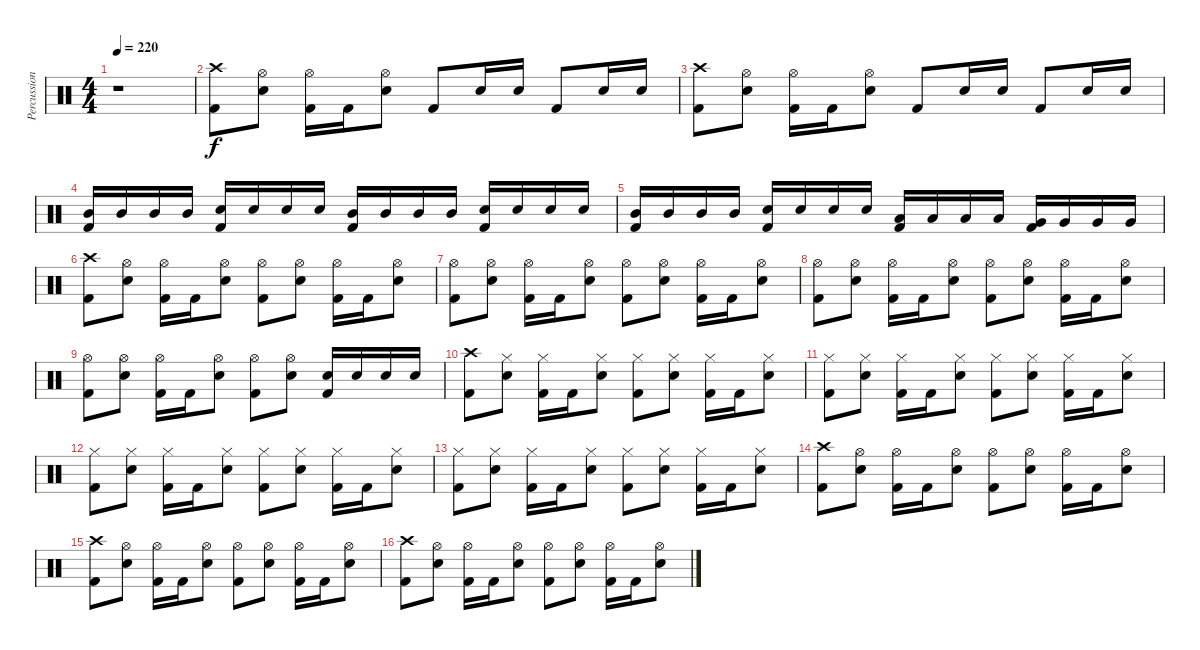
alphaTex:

\track ("Percussions" "Percussion") {instrument percussion}
\staff {score}
\articulation defaults
\ts (4 4)
\tempo 220
\clef neutral
\ks c
r.1{dy f} |
("Crash high (hit)" "Kick (hit) 2").8 ("Hi-Hat (open)" "Snare (hit) 2").8 ("Hi-Hat (open)" "Kick (hit) 2").16 "Kick (hit) 2".16 ("Hi-Hat (open)" "Snare (hit) 2").8 "Kick (hit) 2".8 "Snare (hit) 2".16 "Snare (hit) 2".16 "Kick (hit) 2".8 "Snare (hit) 2".16 "Snare (hit) 2".16 |
("Crash high (hit)" "Kick (hit) 2").8 ("Hi-Hat (open)" "Snare (hit) 2").8 ("Hi-Hat (open)" "Kick (hit) 2").16 "Kick (hit) 2".16 ("Hi-Hat (open)" "Snare (hit) 2").8 "Kick (hit) 2".8 "Snare (hit) 2".16 "Snare (hit) 2".16 "Kick (hit) 2".8 "Snare (hit) 2".16 "Snare (hit) 2".16 |
("Mid Tom (hit)" "Kick (hit) 2").16 "Mid Tom (hit)".16 "Mid Tom (hit)".16 "Mid Tom (hit)".16 ("Snare (hit) 2" "Kick (hit) 2").16 "Snare (hit) 2".16 "Snare (hit) 2".16 "Snare (hit) 2".16 ("Mid Tom (hit)" "Kick (hit) 2").16 "Mid Tom (hit)".16 "Mid Tom (hit)".16 "Mid Tom (hit)".16 ("Snare (hit) 2" "Kick (hit) 2").16 "Snare (hit) 2".16 "Snare (hit) 2".16 "Snare (hit) 2".16 |
("Mid Tom (hit)" "Kick (hit) 2").16 "Mid Tom (hit)".16 "Mid Tom (hit)".16 "Mid Tom (hit)".16 ("Snare (hit) 2" "Kick (hit) 2").16 "Snare (hit) 2".16 "Snare (hit) 2".16 "Snare (hit) 2".16 ("Low Tom (hit)" "Kick (hit) 2").16 "Low Tom (hit)".16 "Low Tom (hit)".16 "Low Tom (hit)".16 ("Very Low Tom (hit)" "Kick (hit) 2").16 "Very Low Tom (hit)".16 "Very Low Tom (hit)".16 "Very Low Tom (hit)".16 |
("Crash high (hit)" "Kick (hit) 2").8 ("Hi-Hat (open)" "Snare (hit) 2").8 ("Hi-Hat (open)" "Kick (hit) 2").16 "Kick (hit) 2".16 ("Hi-Hat (open)" "Snare (hit) 2").8 ("Hi-Hat (open)" "Kick (hit) 2").8 ("Hi-Hat (open)" "Snare (hit) 2").8 ("Hi-Hat (open)" "Kick (hit) 2").16 "Kick (hit) 2".16 ("Hi-Hat (open)" "Snare (hit) 2").8 |
("Hi-Hat (open)" "Kick (hit) 2").8 ("Hi-Hat (open)" "Snare (hit) 2").8 ("Hi-Hat (open)" "Kick (hit) 2").16 "Kick (hit) 2".16 ("Hi-Hat (open)" "Snare (hit) 2").8 ("Hi-Hat (open)" "Kick (hit) 2").8 ("Hi-Hat (open)" "Snare (hit) 2").8 ("Hi-Hat (open)" "Kick (hit) 2").16 "Kick (hit) 2".16 ("Hi-Hat (open)" "Snare (hit) 2").8 |
("Hi-Hat (open)" "Kick (hit) 2").8 ("Hi-Hat (open)" "Snare (hit) 2").8 ("Hi-Hat (open)" "Kick (hit) 2").16 "Kick (hit) 2".16 ("Hi-Hat (open)" "Snare (hit) 2").8 ("Hi-Hat (open)" "Kick (hit) 2").8 ("Hi-Hat (open)" "Snare (hit) 2").8 ("Hi-Hat (open)" "Kick (hit) 2").16 "Kick (hit) 2".16 ("Hi-Hat (open)" "Snare (hit) 2").8 |
("Hi-Hat (open)" "Kick (hit) 2").8 ("Hi-Hat (open)" "Snare (hit) 2").8 ("Hi-Hat (open)" "Kick (hit) 2").16 "Kick (hit) 2".16 ("Hi-Hat (open)" "Snare (hit) 2").8 ("Hi-Hat (open)" "Kick (hit) 2").8 ("Hi-Hat (open)" "Snare (hit) 2").8 ("Snare (hit) 2" "Kick (hit) 2").16 "Snare (hit) 2".16 "Snare (hit) 2".16 "Snare (hit) 2".16 |
("Crash high (hit)" "Kick (hit) 2").8 ("Hi-Hat (closed)" "Snare (hit) 2").8 ("Hi-Hat (closed)" "Kick (hit) 2").16 "Kick (hit) 2".16 ("Hi-Hat (closed)" "Snare (hit) 2").8 ("Hi-Hat (closed)" "Kick (hit) 2").8 ("Hi-Hat (closed)" "Snare (hit) 2").8 ("Hi-Hat (closed)" "Kick (hit) 2").16 "Kick (hit) 2".16 ("Hi-Hat (closed)" "Snare (hit) 2").8 |
("Hi-Hat (closed)" "Kick (hit) 2").8 ("Hi-Hat (closed)" "Snare (hit) 2").8 ("Hi-Hat (closed)" "Kick (hit) 2").16 "Kick (hit) 2".16 ("Hi-Hat (closed)" "Snare (hit) 2").8 ("Hi-Hat (closed)" "Kick (hit) 2").8 ("Hi-Hat (closed)" "Snare (hit) 2").8 ("Hi-Hat (closed)" "Kick (hit) 2").16 "Kick (hit) 2".16 ("Hi-Hat (closed)" "Snare (hit) 2").8 |
("Hi-Hat (closed)" "Kick (hit) 2").8 ("Hi-Hat (closed)" "Snare (hit) 2").8 ("Hi-Hat (closed)" "Kick (hit) 2").16 "Kick (hit) 2".16 ("Hi-Hat (closed)" "Snare (hit) 2").8 ("Hi-Hat (closed)" "Kick (hit) 2").8 ("Hi-Hat (closed)" "Snare (hit) 2").8 ("Hi-Hat (closed)" "Kick (hit) 2").16 "Kick (hit) 2".16 ("Hi-Hat (closed)" "Snare (hit) 2").8 |
("Hi-Hat (closed)" "Kick (hit) 2").8 ("Hi-Hat (closed)" "Snare (hit) 2").8 ("Hi-Hat (closed)" "Kick (hit) 2").16 "Kick (hit) 2".16 ("Hi-Hat (closed)" "Snare (hit) 2").8 ("Hi-Hat (closed)" "Kick (hit) 2").8 ("Hi-Hat (closed)" "Snare (hit) 2").8 ("Hi-Hat (closed)" "Kick (hit) 2").16 "Kick (hit) 2".16 ("Hi-Hat (closed)" "Snare (hit) 2").8 |
("Crash high (hit)" "Kick (hit) 2").8 ("Hi-Hat (open)" "Snare (hit) 2").8 ("Hi-Hat (open)" "Kick (hit) 2").16 "Kick (hit) 2".16 ("Hi-Hat (open)" "Snare (hit) 2").8 ("Hi-Hat (open)" "Kick (hit) 2").8 ("Hi-Hat (open)" "Snare (hit) 2").8 ("Hi-Hat (open)" "Kick (hit) 2").16 "Kick (hit) 2".16 ("Hi-Hat (open)" "Snare (hit) 2").8 |
("Crash high (hit)" "Kick (hit) 2").8 ("Hi-Hat (open)" "Snare (hit) 2").8 ("Hi-Hat (open)" "Kick (hit) 2").16 "Kick (hit) 2".16 ("Hi-Hat (open)" "Snare (hit) 2").8 ("Hi-Hat (open)" "Kick (hit) 2").8 ("Hi-Hat (open)" "Snare (hit) 2").8 ("Hi-Hat (open)" "Kick (hit) 2").16 "Kick (hit) 2".16 ("Hi-Hat (open)" "Snare (hit) 2").8 |
("Crash high (hit)" "Kick (hit) 2").8 ("Hi-Hat (open)" "Snare (hit) 2").8 ("Hi-Hat (open)" "Kick (hit) 2").16 "Kick (hit) 2".16 ("Hi-Hat (open)" "Snare (hit) 2").8 ("Hi-Hat (open)" "Kick (hit) 2").8 ("Hi-Hat (open)" "Snare (hit) 2").8 ("Hi-Hat (open)" "Kick (hit) 2").16 "Kick (hit) 2".16 ("Hi-Hat (open)" "Snare (hit) 2").8
